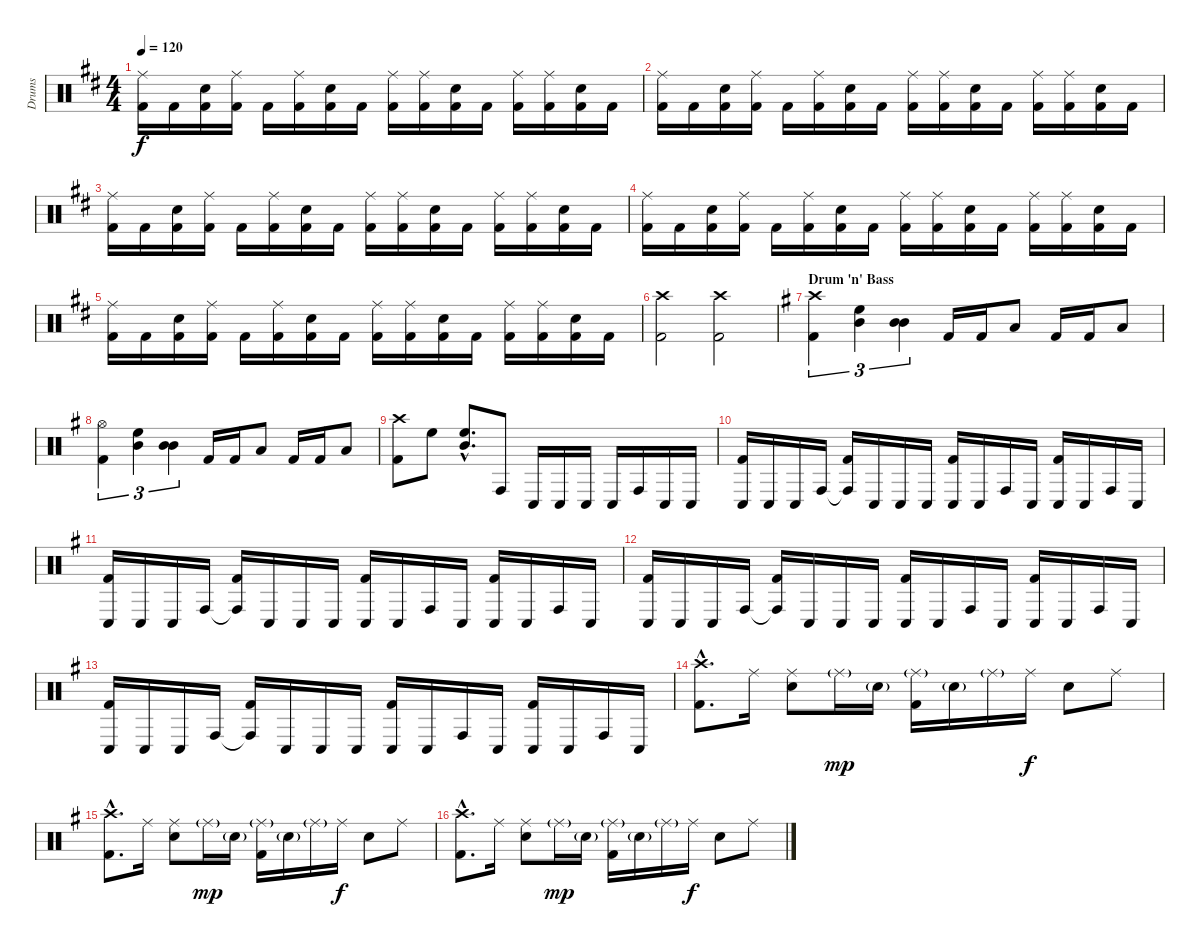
\track ("Drums" "Drums") {instrument percussion}
\staff {score}
\articulation defaults
\ts (4 4)
\tempo 120
\clef neutral
\ks bminor
("Ride (middle)" "Kick (hit) 2").16{dy f} "Kick (hit) 2".16 ("Snare (hit) 2" "Kick (hit) 2").16 ("Ride (middle)" "Kick (hit) 2").16 "Kick (hit) 2".16 ("Ride (middle)" "Kick (hit) 2").16 ("Snare (hit) 2" "Kick (hit) 2").16 "Kick (hit) 2".16 ("Ride (middle)" "Kick (hit) 2").16 ("Ride (middle)" "Kick (hit) 2").16 ("Snare (hit) 2" "Kick (hit) 2").16 "Kick (hit) 2".16 ("Ride (middle)" "Kick (hit) 2").16 ("Ride (middle)" "Kick (hit) 2").16 ("Snare (hit) 2" "Kick (hit) 2").16 "Kick (hit) 2".16 |
("Ride (middle)" "Kick (hit) 2").16 "Kick (hit) 2".16 ("Snare (hit) 2" "Kick (hit) 2").16 ("Ride (middle)" "Kick (hit) 2").16 "Kick (hit) 2".16 ("Ride (middle)" "Kick (hit) 2").16 ("Snare (hit) 2" "Kick (hit) 2").16 "Kick (hit) 2".16 ("Ride (middle)" "Kick (hit) 2").16 ("Ride (middle)" "Kick (hit) 2").16 ("Snare (hit) 2" "Kick (hit) 2").16 "Kick (hit) 2".16 ("Ride (middle)" "Kick (hit) 2").16 ("Ride (middle)" "Kick (hit) 2").16 ("Snare (hit) 2" "Kick (hit) 2").16 "Kick (hit) 2".16 |
("Ride (middle)" "Kick (hit) 2").16 "Kick (hit) 2".16 ("Snare (hit) 2" "Kick (hit) 2").16 ("Ride (middle)" "Kick (hit) 2").16 "Kick (hit) 2".16 ("Ride (middle)" "Kick (hit) 2").16 ("Snare (hit) 2" "Kick (hit) 2").16 "Kick (hit) 2".16 ("Ride (middle)" "Kick (hit) 2").16 ("Ride (middle)" "Kick (hit) 2").16 ("Snare (hit) 2" "Kick (hit) 2").16 "Kick (hit) 2".16 ("Ride (middle)" "Kick (hit) 2").16 ("Ride (middle)" "Kick (hit) 2").16 ("Snare (hit) 2" "Kick (hit) 2").16 "Kick (hit) 2".16 |
("Ride (middle)" "Kick (hit) 2").16 "Kick (hit) 2".16 ("Snare (hit) 2" "Kick (hit) 2").16 ("Ride (middle)" "Kick (hit) 2").16 "Kick (hit) 2".16 ("Ride (middle)" "Kick (hit) 2").16 ("Snare (hit) 2" "Kick (hit) 2").16 "Kick (hit) 2".16 ("Ride (middle)" "Kick (hit) 2").16 ("Ride (middle)" "Kick (hit) 2").16 ("Snare (hit) 2" "Kick (hit) 2").16 "Kick (hit) 2".16 ("Ride (middle)" "Kick (hit) 2").16 ("Ride (middle)" "Kick (hit) 2").16 ("Snare (hit) 2" "Kick (hit) 2").16 "Kick (hit) 2".16 |
("Ride (middle)" "Kick (hit) 2").16 "Kick (hit) 2".16 ("Snare (hit) 2" "Kick (hit) 2").16 ("Ride (middle)" "Kick (hit) 2").16 "Kick (hit) 2".16 ("Ride (middle)" "Kick (hit) 2").16 ("Snare (hit) 2" "Kick (hit) 2").16 "Kick (hit) 2".16 ("Ride (middle)" "Kick (hit) 2").16 ("Ride (middle)" "Kick (hit) 2").16 ("Snare (hit) 2" "Kick (hit) 2").16 "Kick (hit) 2".16 ("Ride (middle)" "Kick (hit) 2").16 ("Ride (middle)" "Kick (hit) 2").16 ("Snare (hit) 2" "Kick (hit) 2").16 "Kick (hit) 2".16 |
("Crash high (hit)" "Kick (hit) 2").2 ("Crash high (hit)" "Kick (hit) 2").2 |
\section ("" "Drum 'n' Bass")
\ks eminor
("Crash high (hit)" "Kick (hit) 2").4{tu (3 2)} ("High Floor Tom (hit)" "Mid Tom (hit)").4{tu (3 2)} ("Mid Tom (hit)" "Mid Tom (hit)").4{tu (3 2)} "Kick (hit) 2".16 "Kick (hit) 2".16 "Low Tom (hit)".8 "Kick (hit) 2".16 "Kick (hit) 2".16 "Low Floor Tom (hit)".8 |
("Hi-Hat (open)" "Kick (hit) 2").4{tu (3 2)} ("High Floor Tom (hit)" "Mid Tom (hit)").4{tu (3 2)} ("Mid Tom (hit)" "Mid Tom (hit)").4{tu (3 2)} "Kick (hit) 2".16 "Kick (hit) 2".16 "Low Tom (hit)".8 "Kick (hit) 2".16 "Kick (hit) 2".16 "Low Floor Tom (hit)".8 |
("Crash high (hit)" "Kick (hit) 2").8 "High Floor Tom (hit)".8 ("High Floor Tom (hit)"{hac} "Mid Tom (hit)"{hac}).8{d} "Conga high (hit)".8 "Conga low (hit)".16 "Conga low (hit)".16 "Conga low (hit)".16 "Conga low (hit)".16 "Conga high (hit)".16 "Conga low (hit)".16 "Conga low (hit)".16 |
("Conga low (hit)" "Kick (hit) 2").16 "Conga low (hit)".16 "Conga low (hit)".16 "Conga high (hit)".16 ("Conga high (hit)"{t} "Kick (hit) 2").16 "Conga low (hit)".16 "Conga low (hit)".16 "Conga low (hit)".16 ("Conga low (hit)" "Kick (hit) 2").16 "Conga low (hit)".16 "Conga high (hit)".16 "Conga low (hit)".16 ("Conga low (hit)" "Kick (hit) 2").16 "Conga low (hit)".16 "Conga high (hit)".16 "Conga low (hit)".16 |
("Conga low (hit)" "Kick (hit) 2").16 "Conga low (hit)".16 "Conga low (hit)".16 "Conga high (hit)".16 ("Conga high (hit)"{t} "Kick (hit) 2").16 "Conga low (hit)".16 "Conga low (hit)".16 "Conga low (hit)".16 ("Conga low (hit)" "Kick (hit) 2").16 "Conga low (hit)".16 "Conga high (hit)".16 "Conga low (hit)".16 ("Conga low (hit)" "Kick (hit) 2").16 "Conga low (hit)".16 "Conga high (hit)".16 "Conga low (hit)".16 |
("Conga low (hit)" "Kick (hit) 2").16 "Conga low (hit)".16 "Conga low (hit)".16 "Conga high (hit)".16 ("Conga high (hit)"{t} "Kick (hit) 2").16 "Conga low (hit)".16 "Conga low (hit)".16 "Conga low (hit)".16 ("Conga low (hit)" "Kick (hit) 2").16 "Conga low (hit)".16 "Conga high (hit)".16 "Conga low (hit)".16 ("Conga low (hit)" "Kick (hit) 2").16 "Conga low (hit)".16 "Conga high (hit)".16 "Conga low (hit)".16 |
("Conga low (hit)" "Kick (hit) 2").16 "Conga low (hit)".16 "Conga low (hit)".16 "Conga high (hit)".16 ("Conga high (hit)"{t} "Kick (hit) 2").16 "Conga low (hit)".16 "Conga low (hit)".16 "Conga low (hit)".16 ("Conga low (hit)" "Kick (hit) 2").16 "Conga low (hit)".16 "Conga high (hit)".16 "Conga low (hit)".16 ("Conga low (hit)" "Kick (hit) 2").16 "Conga low (hit)".16 "Conga high (hit)".16 "Conga low (hit)".16 |
("Crash high (hit)"{hac} "Kick (hit) 2"{hac}).8{d} "Ride (middle)".16 ("Ride (middle)" "Snare (hit) 2").8 "Ride (middle)"{g}.16{dy mp} "Snare (hit) 2"{g}.16 ("Ride (middle)"{g} "Kick (hit) 2").16 "Snare (hit) 2"{g}.16 "Ride (middle)"{g}.16 "Ride (middle)".16{dy f} "Snare (hit) 2".8 "Ride (middle)".8 |
("Crash high (hit)"{hac} "Kick (hit) 2"{hac}).8{d} "Ride (middle)".16 ("Ride (middle)" "Snare (hit) 2").8 "Ride (middle)"{g}.16{dy mp} "Snare (hit) 2"{g}.16 ("Ride (middle)"{g} "Kick (hit) 2").16 "Snare (hit) 2"{g}.16 "Ride (middle)"{g}.16 "Ride (middle)".16{dy f} "Snare (hit) 2".8 "Ride (middle)".8 |
("Crash high (hit)"{hac} "Kick (hit) 2"{hac}).8{d} "Ride (middle)".16 ("Ride (middle)" "Snare (hit) 2").8 "Ride (middle)"{g}.16{dy mp} "Snare (hit) 2"{g}.16 ("Ride (middle)"{g} "Kick (hit) 2").16 "Snare (hit) 2"{g}.16 "Ride (middle)"{g}.16 "Ride (middle)".16{dy f} "Snare (hit) 2".8 "Ride (middle)".8
